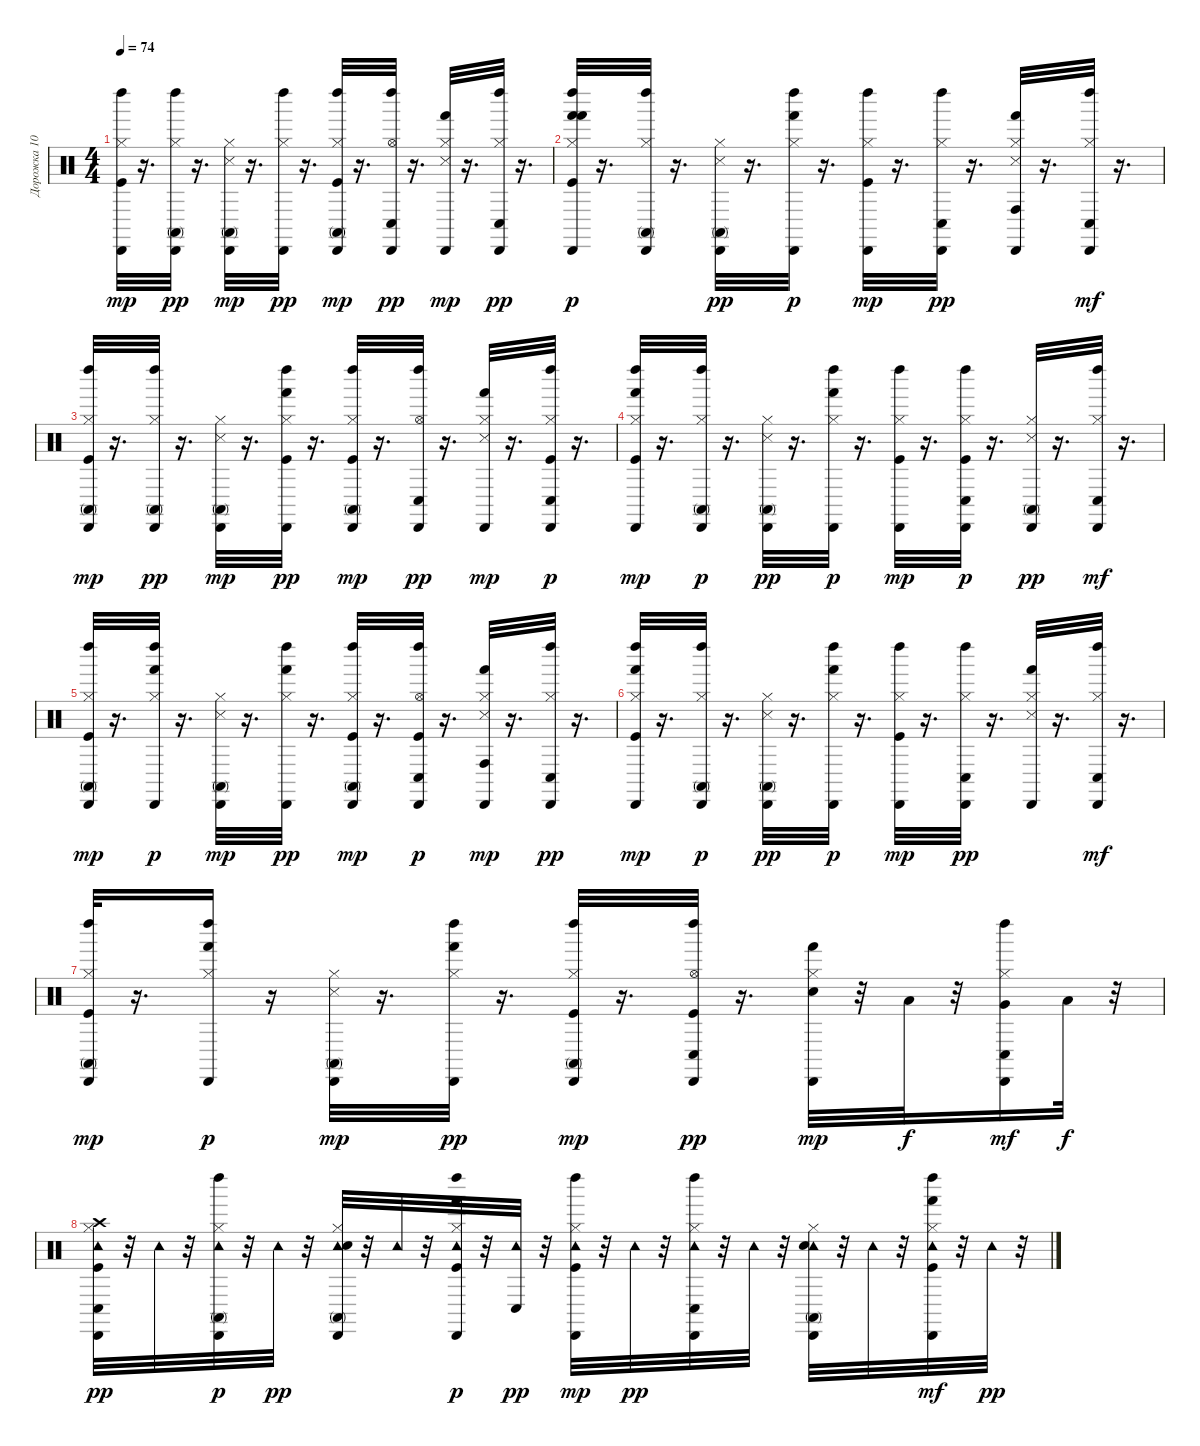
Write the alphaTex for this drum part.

\track ("Дорожка 10" "Дорожка 10") {instrument percussion}
\staff {score}
\articulation defaults
\ts (4 4)
\tempo 74
\clef neutral
\ks c
("Kick (hit)" "Hi-Hat (closed)" "Cabasa (hit)" "Left Maraca (hit)").32{dy mp} r.16{d} ("Hi-Hat (closed)" "Conga high (mute)" "Cabasa (hit)" "Left Maraca (hit)").32{dy pp} r.16{d} ("Hi-Hat (closed)" "Conga high (mute)" "Cabasa (hit)" "Snare (side stick) 3").32{dy mp} r.16{d} ("Hi-Hat (closed)" "Cabasa (hit)" "Left Maraca (hit)").32{dy pp} r.16{d} ("Kick (hit)" "Hi-Hat (closed)" "Conga high (mute)" "Cabasa (hit)" "Left Maraca (hit)").32{dy mp} r.16{d} ("Hi-Hat (open)" "Conga low (hit)" "Cabasa (hit)" "Left Maraca (hit)").32{dy pp} r.16{d} ("Hi-Hat (closed)" "Hand (hit)" "Cabasa (hit)" "Snare (side stick) 3").32{dy mp} r.16{d} ("Hi-Hat (closed)" "Conga low (hit)" "Cabasa (hit)" "Left Maraca (hit)").32{dy pp} r.16{d} |
("Kick (hit)" "Hi-Hat (closed)" "Hand (hit)" "Cabasa (hit)" "Left Maraca (hit)" "Hand (hit)").32{dy p} r.16{d} ("Hi-Hat (closed)" "Cabasa (hit)" "Left Maraca (hit)" "Conga high (mute)").32 r.16{d} ("Hi-Hat (closed)" "Snare (side stick) 3" "Conga high (mute)" "Cabasa (hit)").32{dy pp} r.16{d} ("Hi-Hat (closed)" "Cabasa (hit)" "Left Maraca (hit)" "Hand (hit)").32{dy p} r.16{d} ("Hi-Hat (closed)" "Cabasa (hit)" "Left Maraca (hit)" "Kick (hit)").32{dy mp} r.16{d} ("Hi-Hat (closed)" "Conga low (hit)" "Cabasa (hit)" "Left Maraca (hit)").32{dy pp} r.16{d} ("Hi-Hat (closed)" "Snare (side stick) 3" "Hand (hit)" "Conga high (hit)" "Cabasa (hit)").32 r.16{d} ("Hi-Hat (closed)" "Cabasa (hit)" "Left Maraca (hit)" "Conga low (hit)").32{dy mf} r.16{d} |
("Kick (hit)" "Conga high (mute)" "Hi-Hat (closed)" "Cabasa (hit)" "Left Maraca (hit)").32{dy mp} r.16{d} ("Hi-Hat (closed)" "Conga high (mute)" "Cabasa (hit)" "Left Maraca (hit)").32{dy pp} r.16{d} ("Hi-Hat (closed)" "Conga high (mute)" "Cabasa (hit)" "Snare (side stick) 3").32{dy mp} r.16{d} ("Hi-Hat (closed)" "Cabasa (hit)" "Left Maraca (hit)" "Kick (hit)" "Hand (hit)").32{dy pp} r.16{d} ("Hi-Hat (closed)" "Kick (hit)" "Conga high (mute)" "Cabasa (hit)" "Left Maraca (hit)").32{dy mp} r.16{d} ("Hi-Hat (open)" "Conga low (hit)" "Cabasa (hit)" "Left Maraca (hit)").32{dy pp} r.16{d} ("Hi-Hat (closed)" "Hand (hit)" "Cabasa (hit)" "Snare (side stick) 3").32{dy mp} r.16{d} ("Hi-Hat (closed)" "Conga low (hit)" "Cabasa (hit)" "Left Maraca (hit)" "Kick (hit)").32{dy p} r.16{d} |
("Kick (hit)" "Hi-Hat (closed)" "Hand (hit)" "Cabasa (hit)" "Left Maraca (hit)").32{dy mp} r.16{d} ("Hi-Hat (closed)" "Cabasa (hit)" "Left Maraca (hit)" "Conga high (mute)").32{dy p} r.16{d} ("Hi-Hat (closed)" "Snare (side stick) 3" "Conga high (mute)" "Cabasa (hit)").32{dy pp} r.16{d} ("Hi-Hat (closed)" "Cabasa (hit)" "Left Maraca (hit)" "Hand (hit)").32{dy p} r.16{d} ("Hi-Hat (closed)" "Cabasa (hit)" "Left Maraca (hit)" "Kick (hit)").32{dy mp} r.16{d} ("Hi-Hat (closed)" "Conga low (hit)" "Cabasa (hit)" "Left Maraca (hit)" "Kick (hit)").32{dy p} r.16{d} ("Hi-Hat (closed)" "Snare (side stick) 3" "Conga high (mute)" "Cabasa (hit)").32{dy pp} r.16{d} ("Hi-Hat (closed)" "Cabasa (hit)" "Left Maraca (hit)" "Conga low (hit)").32{dy mf} r.16{d} |
("Kick (hit)" "Conga high (mute)" "Hi-Hat (closed)" "Cabasa (hit)" "Left Maraca (hit)").32{dy mp} r.16{d} ("Hi-Hat (closed)" "Cabasa (hit)" "Left Maraca (hit)" "Hand (hit)").32{dy p} r.16{d} ("Hi-Hat (closed)" "Conga high (mute)" "Cabasa (hit)" "Snare (side stick) 3").32{dy mp} r.16{d} ("Hi-Hat (closed)" "Cabasa (hit)" "Left Maraca (hit)" "Hand (hit)").32{dy pp} r.16{d} ("Hi-Hat (closed)" "Kick (hit)" "Conga high (mute)" "Cabasa (hit)" "Left Maraca (hit)").32{dy mp} r.16{d} ("Hi-Hat (open)" "Conga low (hit)" "Cabasa (hit)" "Left Maraca (hit)" "Kick (hit)").32{dy p} r.16{d} ("Hi-Hat (closed)" "Cabasa (hit)" "Snare (side stick) 3" "Conga high (hit)" "Hand (hit)").32{dy mp} r.16{d} ("Hi-Hat (closed)" "Conga low (hit)" "Cabasa (hit)" "Left Maraca (hit)").32{dy pp} r.16{d} |
("Kick (hit)" "Hi-Hat (closed)" "Hand (hit)" "Cabasa (hit)" "Left Maraca (hit)").32{dy mp} r.16{d} ("Hi-Hat (closed)" "Cabasa (hit)" "Left Maraca (hit)" "Conga high (mute)").32{dy p} r.16{d} ("Hi-Hat (closed)" "Snare (side stick) 3" "Conga high (mute)" "Cabasa (hit)").32{dy pp} r.16{d} ("Hi-Hat (closed)" "Cabasa (hit)" "Left Maraca (hit)" "Hand (hit)").32{dy p} r.16{d} ("Hi-Hat (closed)" "Cabasa (hit)" "Left Maraca (hit)" "Kick (hit)").32{dy mp} r.16{d} ("Hi-Hat (closed)" "Conga low (hit)" "Cabasa (hit)" "Left Maraca (hit)").32{dy pp} r.16{d} ("Hi-Hat (closed)" "Snare (side stick) 3" "Hand (hit)" "Cabasa (hit)").32 r.16{d} ("Hi-Hat (closed)" "Cabasa (hit)" "Left Maraca (hit)" "Conga low (hit)").32{dy mf} r.16{d} |
("Kick (hit)" "Conga high (mute)" "Hi-Hat (closed)" "Cabasa (hit)" "Left Maraca (hit)").32{dy mp} r.16{d} ("Hi-Hat (closed)" "Cabasa (hit)" "Left Maraca (hit)" "Hand (hit)").16{dy p} r.16 ("Hi-Hat (closed)" "Conga high (mute)" "Cabasa (hit)" "Snare (side stick) 3").32{dy mp} r.16{d} ("Hi-Hat (closed)" "Cabasa (hit)" "Left Maraca (hit)" "Hand (hit)").32{dy pp} r.16{d} ("Hi-Hat (closed)" "Kick (hit)" "Conga high (mute)" "Cabasa (hit)" "Left Maraca (hit)").32{dy mp} r.16{d} ("Hi-Hat (open)" "Conga low (hit)" "Cabasa (hit)" "Left Maraca (hit)" "Kick (hit)").32{dy pp} r.16{d} ("Hi-Hat (closed)" "Cabasa (hit)" "Electric Snare (hit)" "Hand (hit)").32{dy mp} r.32 "Low Tom (hit)".32{dy f} r.32 ("Hi-Hat (closed)" "Conga low (hit)" "Cabasa (hit)" "Left Maraca (hit)" "Very Low Tom (hit)").16{dy mf} "Low Floor Tom (hit)".32{dy f} r.32 |
("Conga low (hit)" "Crash high (hit)" "Tambourine (hit)" "Kick (hit)" "Hi-Hat (closed)" "Cabasa (hit)").32{dy pp} r.32 "Tambourine (hit)".32 r.32 ("Hi-Hat (closed)" "Tambourine (hit)" "Cabasa (hit)" "Left Maraca (hit)" "Conga high (mute)").32{dy p} r.32 "Tambourine (hit)".32{dy pp} r.32 ("Tambourine (hit)" "Electric Snare (hit)" "Hi-Hat (closed)" "Conga high (mute)" "Cabasa (hit)").32 r.32 "Tambourine (hit)".32 r.32 ("Kick (hit)" "Hi-Hat (closed)" "Tambourine (hit)" "Cabasa (hit)" "Left Maraca (hit)" "Hand (hit)").32{dy p} r.32 ("Conga low (hit)" "Tambourine (hit)").32{dy pp} r.32 ("Kick (hit)" "Hi-Hat (closed)" "Tambourine (hit)" "Cabasa (hit)" "Left Maraca (hit)").32{dy mp} r.32 "Tambourine (hit)".32{dy pp} r.32 ("Conga low (hit)" "Hi-Hat (closed)" "Tambourine (hit)" "Cabasa (hit)" "Left Maraca (hit)").32 r.32 "Tambourine (hit)".32 r.32 ("Conga high (mute)" "Tambourine (hit)" "Electric Snare (hit)" "Hi-Hat (closed)" "Cabasa (hit)").32 r.32 "Tambourine (hit)".32 r.32 ("Kick (hit)" "Hi-Hat (closed)" "Tambourine (hit)" "Cabasa (hit)" "Left Maraca (hit)" "Hand (hit)").32{dy mf} r.32 "Tambourine (hit)".32{dy pp} r.32
